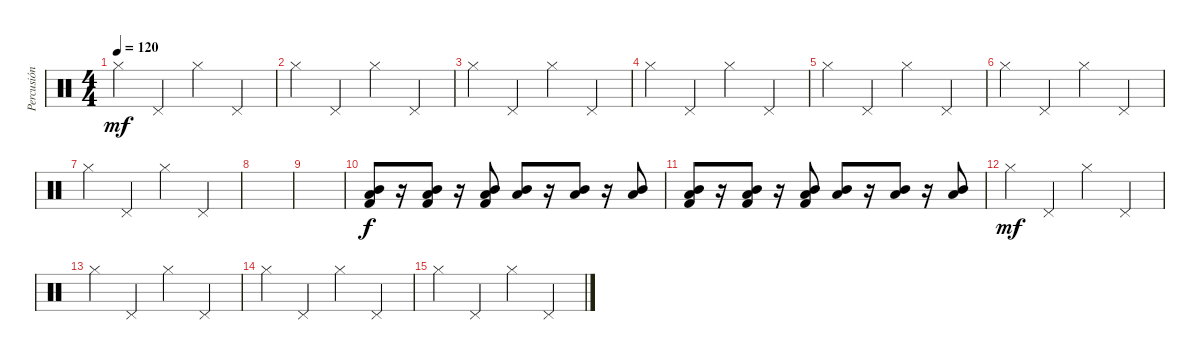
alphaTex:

\track ("Percusión" "Percusión") {instrument percussion}
\staff {score}
\articulation defaults
\ts (4 4)
\tempo 120
\clef neutral
\ks c "Hi-Hat (closed)".4{dy mf} "Pedal Hi-Hat (hit)".4 "Hi-Hat (closed)".4 "Pedal Hi-Hat (hit)".4
|
"Hi-Hat (closed)".4 "Pedal Hi-Hat (hit)".4 "Hi-Hat (closed)".4 "Pedal Hi-Hat (hit)".4 |
"Hi-Hat (closed)".4 "Pedal Hi-Hat (hit)".4 "Hi-Hat (closed)".4 "Pedal Hi-Hat (hit)".4 |
"Hi-Hat (closed)".4 "Pedal Hi-Hat (hit)".4 "Hi-Hat (closed)".4 "Pedal Hi-Hat (hit)".4 |
"Hi-Hat (closed)".4 "Pedal Hi-Hat (hit)".4 "Hi-Hat (closed)".4 "Pedal Hi-Hat (hit)".4 |
"Hi-Hat (closed)".4 "Pedal Hi-Hat (hit)".4 "Hi-Hat (closed)".4 "Pedal Hi-Hat (hit)".4 |
"Hi-Hat (closed)".4 "Pedal Hi-Hat (hit)".4 "Hi-Hat (closed)".4 "Pedal Hi-Hat (hit)".4 |
|
|
("Low Tom (hit)" "Mid Tom (hit)" "Kick (hit) 2").8{dy f} r.16 ("Low Tom (hit)" "Mid Tom (hit)" "Kick (hit) 2").8 r.16 ("Low Tom (hit)" "Mid Tom (hit)" "Kick (hit) 2").8 ("Low Tom (hit)" "Mid Tom (hit)").8 r.16 ("Low Tom (hit)" "Mid Tom (hit)").8 r.16 ("Low Tom (hit)" "Mid Tom (hit)").8 |
("Low Tom (hit)" "Mid Tom (hit)" "Kick (hit) 2").8 r.16 ("Low Tom (hit)" "Mid Tom (hit)" "Kick (hit) 2").8 r.16 ("Low Tom (hit)" "Mid Tom (hit)" "Kick (hit) 2").8 ("Low Tom (hit)" "Mid Tom (hit)").8 r.16 ("Low Tom (hit)" "Mid Tom (hit)").8 r.16 ("Low Tom (hit)" "Mid Tom (hit)").8 |
"Hi-Hat (closed)".4{dy mf} "Pedal Hi-Hat (hit)".4 "Hi-Hat (closed)".4 "Pedal Hi-Hat (hit)".4 |
"Hi-Hat (closed)".4 "Pedal Hi-Hat (hit)".4 "Hi-Hat (closed)".4 "Pedal Hi-Hat (hit)".4 |
"Hi-Hat (closed)".4 "Pedal Hi-Hat (hit)".4 "Hi-Hat (closed)".4 "Pedal Hi-Hat (hit)".4 |
"Hi-Hat (closed)".4 "Pedal Hi-Hat (hit)".4 "Hi-Hat (closed)".4 "Pedal Hi-Hat (hit)".4
